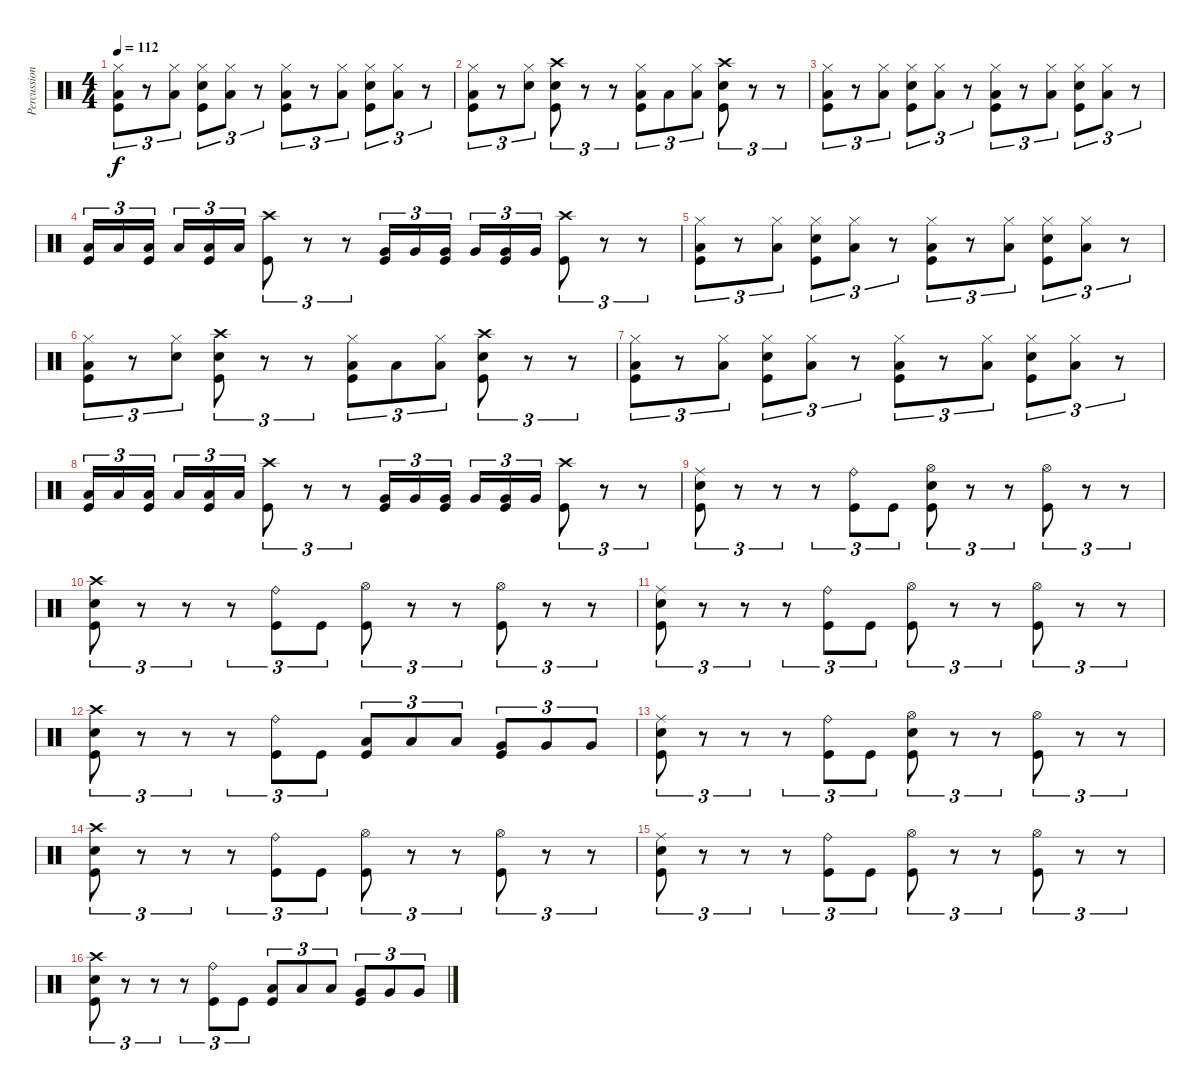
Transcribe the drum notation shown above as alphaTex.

\track ("Percussion" "Percussion") {instrument percussion}
\staff {score}
\articulation defaults
\ts (4 4)
\tempo 112
\clef neutral
\ks c
("Hi-Hat (closed)" "Low Tom (hit)" "Kick (hit)").8{tu (3 2) dy f} r.8{tu (3 2)} ("Hi-Hat (closed)" "Low Tom (hit)").8{tu (3 2)} ("Hi-Hat (closed)" "Snare (hit) 2" "Kick (hit)").8{tu (3 2)} ("Hi-Hat (closed)" "Low Tom (hit)").8{tu (3 2)} r.8{tu (3 2)} ("Hi-Hat (closed)" "Low Tom (hit)" "Kick (hit)").8{tu (3 2)} r.8{tu (3 2)} ("Hi-Hat (closed)" "Low Tom (hit)").8{tu (3 2)} ("Hi-Hat (closed)" "Snare (hit) 2" "Kick (hit)").8{tu (3 2)} ("Hi-Hat (closed)" "Low Tom (hit)").8{tu (3 2)} r.8{tu (3 2)} |
("Hi-Hat (closed)" "Low Tom (hit)" "Kick (hit)").8{tu (3 2)} r.8{tu (3 2)} ("Hi-Hat (closed)" "Electric Snare (hit)").8{tu (3 2)} ("Crash high (hit)" "Snare (hit) 2" "Kick (hit)").8{tu (3 2)} r.8{tu (3 2)} r.8{tu (3 2)} ("Hi-Hat (closed)" "Low Tom (hit)" "Kick (hit)").8{tu (3 2)} "Low Tom (hit)".8{tu (3 2)} ("Hi-Hat (closed)" "Low Tom (hit)").8{tu (3 2)} ("Crash high (hit)" "Snare (hit) 2" "Kick (hit)").8{tu (3 2)} r.8{tu (3 2)} r.8{tu (3 2)} |
("Hi-Hat (closed)" "Low Tom (hit)" "Kick (hit)").8{tu (3 2)} r.8{tu (3 2)} ("Hi-Hat (closed)" "Low Tom (hit)").8{tu (3 2)} ("Hi-Hat (closed)" "Snare (hit) 2" "Kick (hit)").8{tu (3 2)} ("Hi-Hat (closed)" "Low Tom (hit)").8{tu (3 2)} r.8{tu (3 2)} ("Hi-Hat (closed)" "Low Tom (hit)" "Kick (hit)").8{tu (3 2)} r.8{tu (3 2)} ("Hi-Hat (closed)" "Low Tom (hit)").8{tu (3 2)} ("Hi-Hat (closed)" "Snare (hit) 2" "Kick (hit)").8{tu (3 2)} ("Hi-Hat (closed)" "Low Tom (hit)").8{tu (3 2)} r.8{tu (3 2)} |
("Low Tom (hit)" "Kick (hit)").16{tu (3 2)} "Low Tom (hit)".16{tu (3 2)} ("Low Tom (hit)" "Kick (hit)").16{tu (3 2)} "Low Tom (hit)".16{tu (3 2)} ("Low Tom (hit)" "Kick (hit)").16{tu (3 2)} "Low Tom (hit)".16{tu (3 2)} ("Crash high (hit)" "Kick (hit)").8{tu (3 2)} r.8{tu (3 2)} r.8{tu (3 2)} ("Very Low Tom (hit)" "Kick (hit)").16{tu (3 2)} "Very Low Tom (hit)".16{tu (3 2)} ("Very Low Tom (hit)" "Kick (hit)").16{tu (3 2)} "Very Low Tom (hit)".16{tu (3 2)} ("Very Low Tom (hit)" "Kick (hit)").16{tu (3 2)} "Very Low Tom (hit)".16{tu (3 2)} ("Crash high (hit)" "Kick (hit)").8{tu (3 2)} r.8{tu (3 2)} r.8{tu (3 2)} |
("Hi-Hat (closed)" "Low Tom (hit)" "Kick (hit)").8{tu (3 2)} r.8{tu (3 2)} ("Hi-Hat (closed)" "Low Tom (hit)").8{tu (3 2)} ("Hi-Hat (closed)" "Snare (hit) 2" "Kick (hit)").8{tu (3 2)} ("Hi-Hat (closed)" "Low Tom (hit)").8{tu (3 2)} r.8{tu (3 2)} ("Hi-Hat (closed)" "Low Tom (hit)" "Kick (hit)").8{tu (3 2)} r.8{tu (3 2)} ("Hi-Hat (closed)" "Low Tom (hit)").8{tu (3 2)} ("Hi-Hat (closed)" "Snare (hit) 2" "Kick (hit)").8{tu (3 2)} ("Hi-Hat (closed)" "Low Tom (hit)").8{tu (3 2)} r.8{tu (3 2)} |
("Hi-Hat (closed)" "Low Tom (hit)" "Kick (hit)").8{tu (3 2)} r.8{tu (3 2)} ("Hi-Hat (closed)" "Electric Snare (hit)").8{tu (3 2)} ("Crash high (hit)" "Snare (hit) 2" "Kick (hit)").8{tu (3 2)} r.8{tu (3 2)} r.8{tu (3 2)} ("Hi-Hat (closed)" "Low Tom (hit)" "Kick (hit)").8{tu (3 2)} "Low Tom (hit)".8{tu (3 2)} ("Hi-Hat (closed)" "Low Tom (hit)").8{tu (3 2)} ("Crash high (hit)" "Snare (hit) 2" "Kick (hit)").8{tu (3 2)} r.8{tu (3 2)} r.8{tu (3 2)} |
("Hi-Hat (closed)" "Low Tom (hit)" "Kick (hit)").8{tu (3 2)} r.8{tu (3 2)} ("Hi-Hat (closed)" "Low Tom (hit)").8{tu (3 2)} ("Hi-Hat (closed)" "Snare (hit) 2" "Kick (hit)").8{tu (3 2)} ("Hi-Hat (closed)" "Low Tom (hit)").8{tu (3 2)} r.8{tu (3 2)} ("Hi-Hat (closed)" "Low Tom (hit)" "Kick (hit)").8{tu (3 2)} r.8{tu (3 2)} ("Hi-Hat (closed)" "Low Tom (hit)").8{tu (3 2)} ("Hi-Hat (closed)" "Snare (hit) 2" "Kick (hit)").8{tu (3 2)} ("Hi-Hat (closed)" "Low Tom (hit)").8{tu (3 2)} r.8{tu (3 2)} |
("Low Tom (hit)" "Kick (hit)").16{tu (3 2)} "Low Tom (hit)".16{tu (3 2)} ("Low Tom (hit)" "Kick (hit)").16{tu (3 2)} "Low Tom (hit)".16{tu (3 2)} ("Low Tom (hit)" "Kick (hit)").16{tu (3 2)} "Low Tom (hit)".16{tu (3 2)} ("Crash high (hit)" "Kick (hit)").8{tu (3 2)} r.8{tu (3 2)} r.8{tu (3 2)} ("Very Low Tom (hit)" "Kick (hit)").16{tu (3 2)} "Very Low Tom (hit)".16{tu (3 2)} ("Very Low Tom (hit)" "Kick (hit)").16{tu (3 2)} "Very Low Tom (hit)".16{tu (3 2)} ("Very Low Tom (hit)" "Kick (hit)").16{tu (3 2)} "Very Low Tom (hit)".16{tu (3 2)} ("Crash high (hit)" "Kick (hit)").8{tu (3 2)} r.8{tu (3 2)} r.8{tu (3 2)} |
("Ride (middle)" "Snare (hit) 2" "Kick (hit)").8{tu (3 2)} r.8{tu (3 2)} r.8{tu (3 2)} r.8{tu (3 2)} ("Ride (bell)" "Kick (hit)").8{tu (3 2)} "Kick (hit)".8{tu (3 2)} ("Hi-Hat (open)" "Snare (hit) 2" "Kick (hit)").8{tu (3 2)} r.8{tu (3 2)} r.8{tu (3 2)} ("Hi-Hat (open)" "Kick (hit)").8{tu (3 2)} r.8{tu (3 2)} r.8{tu (3 2)} |
("Crash high (hit)" "Snare (hit) 2" "Kick (hit)").8{tu (3 2)} r.8{tu (3 2)} r.8{tu (3 2)} r.8{tu (3 2)} ("Ride (bell)" "Kick (hit)").8{tu (3 2)} "Kick (hit)".8{tu (3 2)} ("Hi-Hat (open)" "Kick (hit)").8{tu (3 2)} r.8{tu (3 2)} r.8{tu (3 2)} ("Hi-Hat (open)" "Kick (hit)").8{tu (3 2)} r.8{tu (3 2)} r.8{tu (3 2)} |
("Ride (middle)" "Snare (hit) 2" "Kick (hit)").8{tu (3 2)} r.8{tu (3 2)} r.8{tu (3 2)} r.8{tu (3 2)} ("Ride (bell)" "Kick (hit)").8{tu (3 2)} "Kick (hit)".8{tu (3 2)} ("Hi-Hat (open)" "Kick (hit)").8{tu (3 2)} r.8{tu (3 2)} r.8{tu (3 2)} ("Hi-Hat (open)" "Kick (hit)").8{tu (3 2)} r.8{tu (3 2)} r.8{tu (3 2)} |
("Crash high (hit)" "Snare (hit) 2" "Kick (hit)").8{tu (3 2)} r.8{tu (3 2)} r.8{tu (3 2)} r.8{tu (3 2)} ("Ride (bell)" "Kick (hit)").8{tu (3 2)} "Kick (hit)".8{tu (3 2)} ("Low Tom (hit)" "Kick (hit)").8{tu (3 2)} "Low Tom (hit)".8{tu (3 2)} "Low Tom (hit)".8{tu (3 2)} ("Very Low Tom (hit)" "Kick (hit)").8{tu (3 2)} "Very Low Tom (hit)".8{tu (3 2)} "Very Low Tom (hit)".8{tu (3 2)} |
("Ride (middle)" "Snare (hit) 2" "Kick (hit)").8{tu (3 2)} r.8{tu (3 2)} r.8{tu (3 2)} r.8{tu (3 2)} ("Ride (bell)" "Kick (hit)").8{tu (3 2)} "Kick (hit)".8{tu (3 2)} ("Hi-Hat (open)" "Snare (hit) 2" "Kick (hit)").8{tu (3 2)} r.8{tu (3 2)} r.8{tu (3 2)} ("Hi-Hat (open)" "Kick (hit)").8{tu (3 2)} r.8{tu (3 2)} r.8{tu (3 2)} |
("Crash high (hit)" "Snare (hit) 2" "Kick (hit)").8{tu (3 2)} r.8{tu (3 2)} r.8{tu (3 2)} r.8{tu (3 2)} ("Ride (bell)" "Kick (hit)").8{tu (3 2)} "Kick (hit)".8{tu (3 2)} ("Hi-Hat (open)" "Kick (hit)").8{tu (3 2)} r.8{tu (3 2)} r.8{tu (3 2)} ("Hi-Hat (open)" "Kick (hit)").8{tu (3 2)} r.8{tu (3 2)} r.8{tu (3 2)} |
("Ride (middle)" "Snare (hit) 2" "Kick (hit)").8{tu (3 2)} r.8{tu (3 2)} r.8{tu (3 2)} r.8{tu (3 2)} ("Ride (bell)" "Kick (hit)").8{tu (3 2)} "Kick (hit)".8{tu (3 2)} ("Hi-Hat (open)" "Kick (hit)").8{tu (3 2)} r.8{tu (3 2)} r.8{tu (3 2)} ("Hi-Hat (open)" "Kick (hit)").8{tu (3 2)} r.8{tu (3 2)} r.8{tu (3 2)} |
("Crash high (hit)" "Snare (hit) 2" "Kick (hit)").8{tu (3 2)} r.8{tu (3 2)} r.8{tu (3 2)} r.8{tu (3 2)} ("Ride (bell)" "Kick (hit)").8{tu (3 2)} "Kick (hit)".8{tu (3 2)} ("Low Tom (hit)" "Kick (hit)").8{tu (3 2)} "Low Tom (hit)".8{tu (3 2)} "Low Tom (hit)".8{tu (3 2)} ("Very Low Tom (hit)" "Kick (hit)").8{tu (3 2)} "Very Low Tom (hit)".8{tu (3 2)} "Very Low Tom (hit)".8{tu (3 2)}
